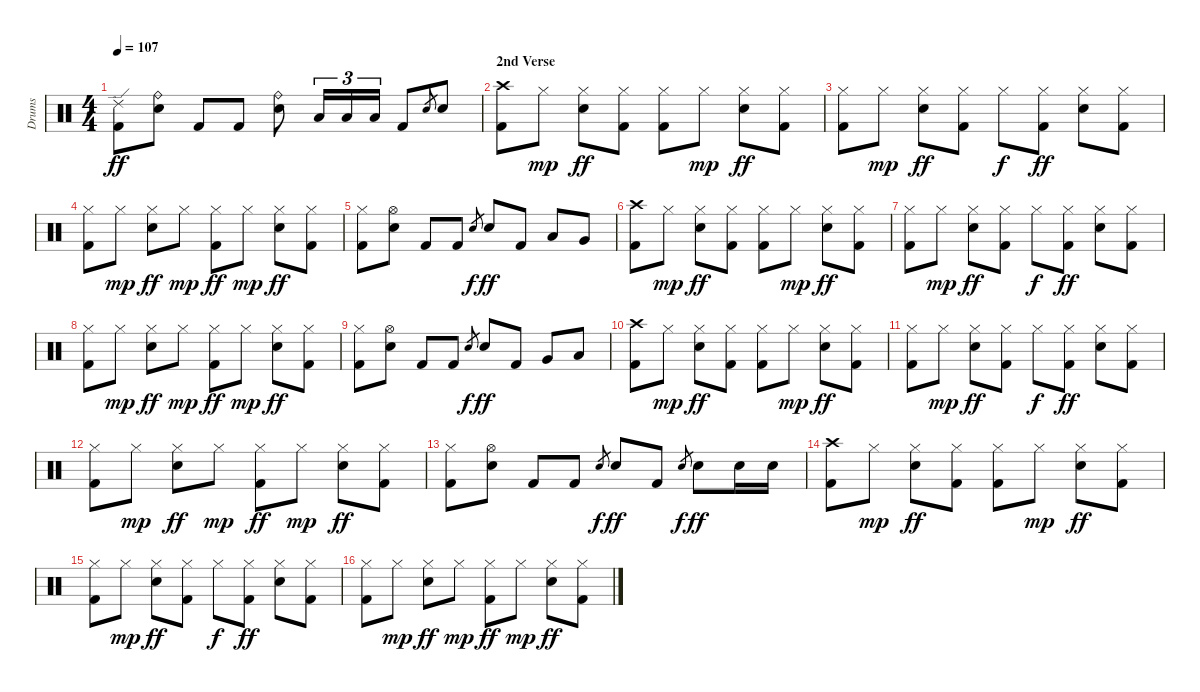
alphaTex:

\track ("Drums" "Drums") {instrument percussion}
\staff {score}
\articulation defaults
\ts (4 4)
\tempo 107
\clef neutral
\ks c
("Ride (edge) 2" "Kick (hit) 2").8{dy ff} ("Ride (bell)" "Snare (hit) 2").8 "Kick (hit) 2".8 "Kick (hit) 2".8 ("Ride (bell)" "Snare (hit) 2").8 "Low Tom (hit)".16{tu (3 2)} "Low Tom (hit)".16{tu (3 2)} "Low Tom (hit)".16{tu (3 2)} "Kick (hit) 2".8 "Snare (hit) 2".8{gr} "Snare (hit) 2".8 |
\section ("" "2nd Verse")
("Crash high (hit)" "Kick (hit) 2").8 "Hi-Hat (closed)".8{dy mp} ("Hi-Hat (closed)" "Snare (hit) 2").8{dy ff} ("Hi-Hat (closed)" "Kick (hit) 2").8 ("Hi-Hat (closed)" "Kick (hit) 2").8 "Hi-Hat (closed)".8{dy mp} ("Hi-Hat (closed)" "Snare (hit) 2").8{dy ff} ("Hi-Hat (closed)" "Kick (hit) 2").8 |
("Hi-Hat (closed)" "Kick (hit) 2").8 "Hi-Hat (closed)".8{dy mp} ("Hi-Hat (closed)" "Snare (hit) 2").8{dy ff} ("Hi-Hat (closed)" "Kick (hit) 2").8 "Hi-Hat (closed)".8{dy f} ("Hi-Hat (closed)" "Kick (hit) 2").8{dy ff} ("Hi-Hat (closed)" "Snare (hit) 2").8 ("Hi-Hat (closed)" "Kick (hit) 2").8 |
("Hi-Hat (closed)" "Kick (hit) 2").8 "Hi-Hat (closed)".8{dy mp} ("Hi-Hat (closed)" "Snare (hit) 2").8{dy ff} "Hi-Hat (closed)".8{dy mp} ("Hi-Hat (closed)" "Kick (hit) 2").8{dy ff} "Hi-Hat (closed)".8{dy mp} ("Hi-Hat (closed)" "Snare (hit) 2").8{dy ff} ("Hi-Hat (closed)" "Kick (hit) 2").8 |
("Hi-Hat (closed)" "Kick (hit) 2").8 ("Hi-Hat (open)" "Snare (hit) 2").8 "Kick (hit) 2".8 "Kick (hit) 2".8 "Snare (hit) 2".8{gr dy f} "Snare (hit) 2".8{dy ff} "Kick (hit) 2".8 "Low Tom (hit)".8 "Very Low Tom (hit)".8 |
("Crash high (hit)" "Kick (hit) 2").8 "Hi-Hat (closed)".8{dy mp} ("Hi-Hat (closed)" "Snare (hit) 2").8{dy ff} ("Hi-Hat (closed)" "Kick (hit) 2").8 ("Hi-Hat (closed)" "Kick (hit) 2").8 "Hi-Hat (closed)".8{dy mp} ("Hi-Hat (closed)" "Snare (hit) 2").8{dy ff} ("Hi-Hat (closed)" "Kick (hit) 2").8 |
("Hi-Hat (closed)" "Kick (hit) 2").8 "Hi-Hat (closed)".8{dy mp} ("Hi-Hat (closed)" "Snare (hit) 2").8{dy ff} ("Hi-Hat (closed)" "Kick (hit) 2").8 "Hi-Hat (closed)".8{dy f} ("Hi-Hat (closed)" "Kick (hit) 2").8{dy ff} ("Hi-Hat (closed)" "Snare (hit) 2").8 ("Hi-Hat (closed)" "Kick (hit) 2").8 |
("Hi-Hat (closed)" "Kick (hit) 2").8 "Hi-Hat (closed)".8{dy mp} ("Hi-Hat (closed)" "Snare (hit) 2").8{dy ff} "Hi-Hat (closed)".8{dy mp} ("Hi-Hat (closed)" "Kick (hit) 2").8{dy ff} "Hi-Hat (closed)".8{dy mp} ("Hi-Hat (closed)" "Snare (hit) 2").8{dy ff} ("Hi-Hat (closed)" "Kick (hit) 2").8 |
("Hi-Hat (closed)" "Kick (hit) 2").8 ("Hi-Hat (open)" "Snare (hit) 2").8 "Kick (hit) 2".8 "Kick (hit) 2".8 "Snare (hit) 2".8{gr dy f} "Snare (hit) 2".8{dy ff} "Kick (hit) 2".8 "Very Low Tom (hit)".8 "Low Floor Tom (hit)".8 |
("Crash high (hit)" "Kick (hit) 2").8 "Hi-Hat (closed)".8{dy mp} ("Hi-Hat (closed)" "Snare (hit) 2").8{dy ff} ("Hi-Hat (closed)" "Kick (hit) 2").8 ("Hi-Hat (closed)" "Kick (hit) 2").8 "Hi-Hat (closed)".8{dy mp} ("Hi-Hat (closed)" "Snare (hit) 2").8{dy ff} ("Hi-Hat (closed)" "Kick (hit) 2").8 |
("Hi-Hat (closed)" "Kick (hit) 2").8 "Hi-Hat (closed)".8{dy mp} ("Hi-Hat (closed)" "Snare (hit) 2").8{dy ff} ("Hi-Hat (closed)" "Kick (hit) 2").8 "Hi-Hat (closed)".8{dy f} ("Hi-Hat (closed)" "Kick (hit) 2").8{dy ff} ("Hi-Hat (closed)" "Snare (hit) 2").8 ("Hi-Hat (closed)" "Kick (hit) 2").8 |
("Hi-Hat (closed)" "Kick (hit) 2").8 "Hi-Hat (closed)".8{dy mp} ("Hi-Hat (closed)" "Snare (hit) 2").8{dy ff} "Hi-Hat (closed)".8{dy mp} ("Hi-Hat (closed)" "Kick (hit) 2").8{dy ff} "Hi-Hat (closed)".8{dy mp} ("Hi-Hat (closed)" "Snare (hit) 2").8{dy ff} ("Hi-Hat (closed)" "Kick (hit) 2").8 |
("Hi-Hat (closed)" "Kick (hit) 2").8 ("Hi-Hat (open)" "Snare (hit) 2").8 "Kick (hit) 2".8 "Kick (hit) 2".8 "Snare (hit) 2".8{gr dy f} "Snare (hit) 2".8{dy ff} "Kick (hit) 2".8 "Snare (hit) 2".8{gr dy f} "Snare (hit) 2".8{dy ff} "Snare (hit) 2".16 "Snare (hit) 2".16 |
("Crash high (hit)" "Kick (hit) 2").8 "Hi-Hat (closed)".8{dy mp} ("Hi-Hat (closed)" "Snare (hit) 2").8{dy ff} ("Hi-Hat (closed)" "Kick (hit) 2").8 ("Hi-Hat (closed)" "Kick (hit) 2").8 "Hi-Hat (closed)".8{dy mp} ("Hi-Hat (closed)" "Snare (hit) 2").8{dy ff} ("Hi-Hat (closed)" "Kick (hit) 2").8 |
("Hi-Hat (closed)" "Kick (hit) 2").8 "Hi-Hat (closed)".8{dy mp} ("Hi-Hat (closed)" "Snare (hit) 2").8{dy ff} ("Hi-Hat (closed)" "Kick (hit) 2").8 "Hi-Hat (closed)".8{dy f} ("Hi-Hat (closed)" "Kick (hit) 2").8{dy ff} ("Hi-Hat (closed)" "Snare (hit) 2").8 ("Hi-Hat (closed)" "Kick (hit) 2").8 |
("Hi-Hat (closed)" "Kick (hit) 2").8 "Hi-Hat (closed)".8{dy mp} ("Hi-Hat (closed)" "Snare (hit) 2").8{dy ff} "Hi-Hat (closed)".8{dy mp} ("Hi-Hat (closed)" "Kick (hit) 2").8{dy ff} "Hi-Hat (closed)".8{dy mp} ("Hi-Hat (closed)" "Snare (hit) 2").8{dy ff} ("Hi-Hat (closed)" "Kick (hit) 2").8
